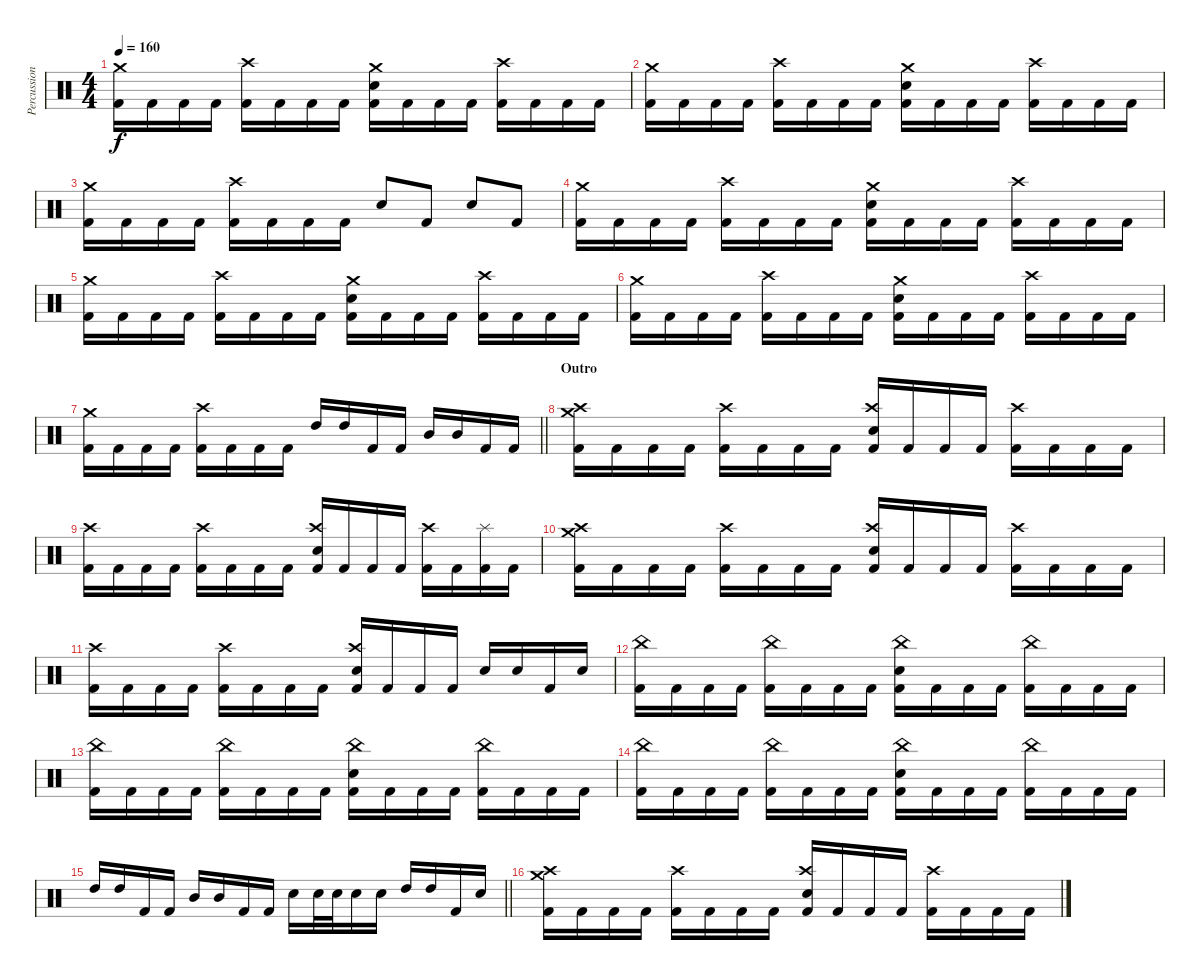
\track ("Percussion" "Percussion") {instrument percussion}
\staff {score}
\articulation defaults
\ts (4 4)
\tempo 160
\clef neutral
\ks c
("Crash medium (hit)" "Kick (hit) 2").16{dy f} "Kick (hit) 2".16 "Kick (hit) 2".16 "Kick (hit) 2".16 ("Crash high (hit)" "Kick (hit) 2").16 "Kick (hit) 2".16 "Kick (hit) 2".16 "Kick (hit) 2".16 ("Crash medium (hit)" "Electric Snare (hit)" "Kick (hit) 2").16 "Kick (hit) 2".16 "Kick (hit) 2".16 "Kick (hit) 2".16 ("Crash high (hit)" "Kick (hit) 2").16 "Kick (hit) 2".16 "Kick (hit) 2".16 "Kick (hit) 2".16 |
("Crash medium (hit)" "Kick (hit) 2").16 "Kick (hit) 2".16 "Kick (hit) 2".16 "Kick (hit) 2".16 ("Crash high (hit)" "Kick (hit) 2").16 "Kick (hit) 2".16 "Kick (hit) 2".16 "Kick (hit) 2".16 ("Crash medium (hit)" "Electric Snare (hit)" "Kick (hit) 2").16 "Kick (hit) 2".16 "Kick (hit) 2".16 "Kick (hit) 2".16 ("Crash high (hit)" "Kick (hit) 2").16 "Kick (hit) 2".16 "Kick (hit) 2".16 "Kick (hit) 2".16 |
("Crash medium (hit)" "Kick (hit) 2").16 "Kick (hit) 2".16 "Kick (hit) 2".16 "Kick (hit) 2".16 ("Crash high (hit)" "Kick (hit) 2").16 "Kick (hit) 2".16 "Kick (hit) 2".16 "Kick (hit) 2".16 "Electric Snare (hit)".8 "Kick (hit) 2".8 "Electric Snare (hit)".8 "Kick (hit) 2".8 |
("Crash medium (hit)" "Kick (hit) 2").16 "Kick (hit) 2".16 "Kick (hit) 2".16 "Kick (hit) 2".16 ("Crash high (hit)" "Kick (hit) 2").16 "Kick (hit) 2".16 "Kick (hit) 2".16 "Kick (hit) 2".16 ("Crash medium (hit)" "Electric Snare (hit)" "Kick (hit) 2").16 "Kick (hit) 2".16 "Kick (hit) 2".16 "Kick (hit) 2".16 ("Crash high (hit)" "Kick (hit) 2").16 "Kick (hit) 2".16 "Kick (hit) 2".16 "Kick (hit) 2".16 |
("Crash medium (hit)" "Kick (hit) 2").16 "Kick (hit) 2".16 "Kick (hit) 2".16 "Kick (hit) 2".16 ("Crash high (hit)" "Kick (hit) 2").16 "Kick (hit) 2".16 "Kick (hit) 2".16 "Kick (hit) 2".16 ("Crash medium (hit)" "Electric Snare (hit)" "Kick (hit) 2").16 "Kick (hit) 2".16 "Kick (hit) 2".16 "Kick (hit) 2".16 ("Crash high (hit)" "Kick (hit) 2").16 "Kick (hit) 2".16 "Kick (hit) 2".16 "Kick (hit) 2".16 |
("Crash medium (hit)" "Kick (hit) 2").16 "Kick (hit) 2".16 "Kick (hit) 2".16 "Kick (hit) 2".16 ("Crash high (hit)" "Kick (hit) 2").16 "Kick (hit) 2".16 "Kick (hit) 2".16 "Kick (hit) 2".16 ("Crash medium (hit)" "Electric Snare (hit)" "Kick (hit) 2").16 "Kick (hit) 2".16 "Kick (hit) 2".16 "Kick (hit) 2".16 ("Crash high (hit)" "Kick (hit) 2").16 "Kick (hit) 2".16 "Kick (hit) 2".16 "Kick (hit) 2".16 |
\barLineRight lightlight
("Crash medium (hit)" "Kick (hit) 2").16 "Kick (hit) 2".16 "Kick (hit) 2".16 "Kick (hit) 2".16 ("Crash high (hit)" "Kick (hit) 2").16 "Kick (hit) 2".16 "Kick (hit) 2".16 "Kick (hit) 2".16 "High Tom (hit)".16 "High Tom (hit)".16 "Kick (hit) 2".16 "Kick (hit) 2".16 "Mid Tom (hit)".16 "Mid Tom (hit)".16 "Kick (hit) 2".16 "Kick (hit) 2".16 |
\section ("" "Outro")
("Crash medium (hit)" "Crash high (hit)" "Kick (hit) 2").16 "Kick (hit) 2".16 "Kick (hit) 2".16 "Kick (hit) 2".16 ("Crash high (hit)" "Kick (hit) 2").16 "Kick (hit) 2".16 "Kick (hit) 2".16 "Kick (hit) 2".16 ("Crash high (hit)" "Electric Snare (hit)" "Kick (hit) 2").16 "Kick (hit) 2".16 "Kick (hit) 2".16 "Kick (hit) 2".16 ("Crash high (hit)" "Kick (hit) 2").16 "Kick (hit) 2".16 "Kick (hit) 2".16 "Kick (hit) 2".16 |
("Crash high (hit)" "Kick (hit) 2").16 "Kick (hit) 2".16 "Kick (hit) 2".16 "Kick (hit) 2".16 ("Crash high (hit)" "Kick (hit) 2").16 "Kick (hit) 2".16 "Kick (hit) 2".16 "Kick (hit) 2".16 ("Crash high (hit)" "Electric Snare (hit)" "Kick (hit) 2").16 "Kick (hit) 2".16 "Kick (hit) 2".16 "Kick (hit) 2".16 ("Crash high (hit)" "Kick (hit) 2").16 "Kick (hit) 2".16 ("Splash (hit)" "Kick (hit) 2").16 "Kick (hit) 2".16 |
("Crash medium (hit)" "Crash high (hit)" "Kick (hit) 2").16 "Kick (hit) 2".16 "Kick (hit) 2".16 "Kick (hit) 2".16 ("Crash high (hit)" "Kick (hit) 2").16 "Kick (hit) 2".16 "Kick (hit) 2".16 "Kick (hit) 2".16 ("Crash high (hit)" "Electric Snare (hit)" "Kick (hit) 2").16 "Kick (hit) 2".16 "Kick (hit) 2".16 "Kick (hit) 2".16 ("Crash high (hit)" "Kick (hit) 2").16 "Kick (hit) 2".16 "Kick (hit) 2".16 "Kick (hit) 2".16 |
("Crash high (hit)" "Kick (hit) 2").16 "Kick (hit) 2".16 "Kick (hit) 2".16 "Kick (hit) 2".16 ("Crash high (hit)" "Kick (hit) 2").16 "Kick (hit) 2".16 "Kick (hit) 2".16 "Kick (hit) 2".16 ("Crash high (hit)" "Electric Snare (hit)" "Kick (hit) 2").16 "Kick (hit) 2".16 "Kick (hit) 2".16 "Kick (hit) 2".16 "Electric Snare (hit)".16 "Electric Snare (hit)".16 "Kick (hit) 2".16 "Electric Snare (hit)".16 |
("China (hit)" "Kick (hit) 2").16 "Kick (hit) 2".16 "Kick (hit) 2".16 "Kick (hit) 2".16 ("China (hit)" "Kick (hit) 2").16 "Kick (hit) 2".16 "Kick (hit) 2".16 "Kick (hit) 2".16 ("China (hit)" "Electric Snare (hit)" "Kick (hit) 2").16 "Kick (hit) 2".16 "Kick (hit) 2".16 "Kick (hit) 2".16 ("China (hit)" "Kick (hit) 2").16 "Kick (hit) 2".16 "Kick (hit) 2".16 "Kick (hit) 2".16 |
("China (hit)" "Kick (hit) 2").16 "Kick (hit) 2".16 "Kick (hit) 2".16 "Kick (hit) 2".16 ("China (hit)" "Kick (hit) 2").16 "Kick (hit) 2".16 "Kick (hit) 2".16 "Kick (hit) 2".16 ("China (hit)" "Electric Snare (hit)" "Kick (hit) 2").16 "Kick (hit) 2".16 "Kick (hit) 2".16 "Kick (hit) 2".16 ("China (hit)" "Kick (hit) 2").16 "Kick (hit) 2".16 "Kick (hit) 2".16 "Kick (hit) 2".16 |
("China (hit)" "Kick (hit) 2").16 "Kick (hit) 2".16 "Kick (hit) 2".16 "Kick (hit) 2".16 ("China (hit)" "Kick (hit) 2").16 "Kick (hit) 2".16 "Kick (hit) 2".16 "Kick (hit) 2".16 ("China (hit)" "Electric Snare (hit)" "Kick (hit) 2").16 "Kick (hit) 2".16 "Kick (hit) 2".16 "Kick (hit) 2".16 ("China (hit)" "Kick (hit) 2").16 "Kick (hit) 2".16 "Kick (hit) 2".16 "Kick (hit) 2".16 |
\barLineRight lightlight "High Tom (hit)".16 "High Tom (hit)".16 "Kick (hit) 2".16 "Kick (hit) 2".16 "Mid Tom (hit)".16 "Mid Tom (hit)".16 "Kick (hit) 2".16 "Kick (hit) 2".16 "Electric Snare (hit)".16 "Electric Snare (hit)".32 "Electric Snare (hit)".32 "Electric Snare (hit)".16 "Electric Snare (hit)".16 "High Tom (hit)".16 "High Tom (hit)".16 "Kick (hit) 2".16 "Electric Snare (hit)".16
|
("Crash medium (hit)" "Crash high (hit)" "Kick (hit) 2").16 "Kick (hit) 2".16 "Kick (hit) 2".16 "Kick (hit) 2".16 ("Crash high (hit)" "Kick (hit) 2").16 "Kick (hit) 2".16 "Kick (hit) 2".16 "Kick (hit) 2".16 ("Crash high (hit)" "Electric Snare (hit)" "Kick (hit) 2").16 "Kick (hit) 2".16 "Kick (hit) 2".16 "Kick (hit) 2".16 ("Crash high (hit)" "Kick (hit) 2").16 "Kick (hit) 2".16 "Kick (hit) 2".16 "Kick (hit) 2".16
